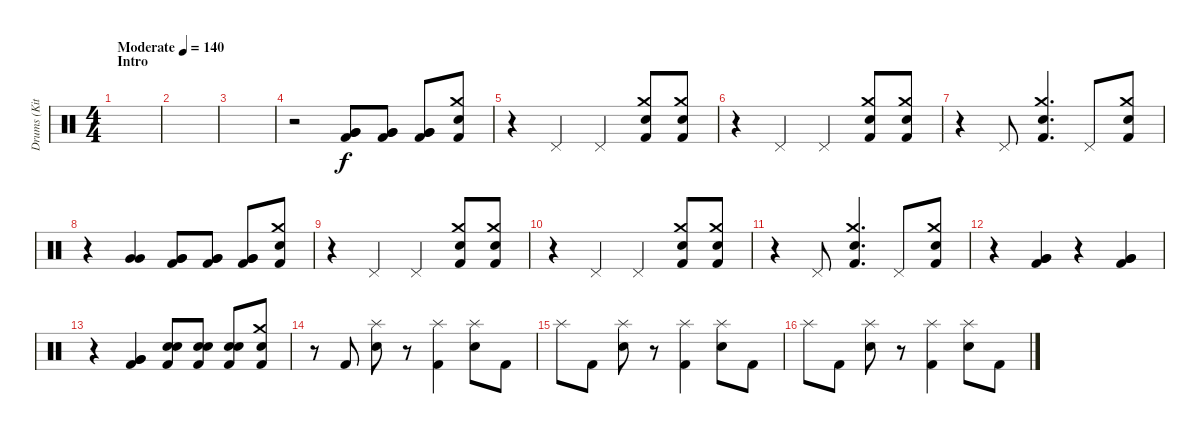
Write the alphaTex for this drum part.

\track ("Drums (Kita)" "Drums (Kit") {instrument percussion}
\staff {score}
\articulation defaults
\ts (4 4)
\section ("" "Intro")
\tempo (140 "Moderate")
\clef neutral
\ks c
|
|
|
r.2 ("Very Low Tom (hit)" "Very Low Tom (hit)" "Kick (hit) 2").8 ("Very Low Tom (hit)" "Very Low Tom (hit)" "Kick (hit) 2").8 ("Very Low Tom (hit)" "Very Low Tom (hit)" "Kick (hit) 2").8 ("Crash medium (hit)" "Snare (hit) 2" "Kick (hit) 2").8 |
r.4 "Pedal Hi-Hat (hit)".4 "Pedal Hi-Hat (hit)".4 ("Crash medium (hit)" "Snare (hit) 2" "Kick (hit) 2").8 ("Crash medium (hit)" "Snare (hit) 2" "Kick (hit) 2").8 |
r.4 "Pedal Hi-Hat (hit)".4 "Pedal Hi-Hat (hit)".4 ("Crash medium (hit)" "Snare (hit) 2" "Kick (hit) 2").8 ("Crash medium (hit)" "Snare (hit) 2" "Kick (hit) 2").8 |
r.4 "Pedal Hi-Hat (hit)".8 ("Crash medium (hit)" "Snare (hit) 2" "Kick (hit) 2").4{d} "Pedal Hi-Hat (hit)".8 ("Crash medium (hit)" "Snare (hit) 2" "Kick (hit) 2").8 |
r.4 ("Very Low Tom (hit)" "Very Low Tom (hit)").4 ("Very Low Tom (hit)" "Very Low Tom (hit)" "Kick (hit) 2").8 ("Very Low Tom (hit)" "Very Low Tom (hit)" "Kick (hit) 2").8 ("Very Low Tom (hit)" "Very Low Tom (hit)" "Kick (hit) 2").8 ("Crash medium (hit)" "Snare (hit) 2" "Kick (hit) 2").8 |
r.4 "Pedal Hi-Hat (hit)".4 "Pedal Hi-Hat (hit)".4 ("Crash medium (hit)" "Snare (hit) 2" "Kick (hit) 2").8 ("Crash medium (hit)" "Snare (hit) 2" "Kick (hit) 2").8 |
r.4 "Pedal Hi-Hat (hit)".4 "Pedal Hi-Hat (hit)".4 ("Crash medium (hit)" "Snare (hit) 2" "Kick (hit) 2").8 ("Crash medium (hit)" "Snare (hit) 2" "Kick (hit) 2").8 |
r.4 "Pedal Hi-Hat (hit)".8 ("Crash medium (hit)" "Snare (hit) 2" "Kick (hit) 2").4{d} "Pedal Hi-Hat (hit)".8 ("Crash medium (hit)" "Snare (hit) 2" "Kick (hit) 2").8 |
r.4 ("Very Low Tom (hit)" "Very Low Tom (hit)" "Kick (hit) 2").4 r.4 ("Very Low Tom (hit)" "Very Low Tom (hit)" "Kick (hit) 2").4 |
r.4 ("Very Low Tom (hit)" "Very Low Tom (hit)" "Kick (hit) 2").4 ("Snare (hit) 2" "Snare (hit) 2" "Kick (hit) 2").8 ("Snare (hit) 2" "Snare (hit) 2" "Kick (hit) 2").8 ("Snare (hit) 2" "Snare (hit) 2" "Kick (hit) 2").8 ("Crash medium (hit)" "Snare (hit) 2" "Kick (hit) 2").8 |
r.8 "Kick (hit) 2".8 ("Splash (hit)" "Snare (hit) 2").8 r.8 ("Splash (hit)" "Kick (hit) 2").4 ("Splash (hit)" "Snare (hit) 2").8 "Kick (hit) 2".8 |
"Splash (hit)".8 "Kick (hit) 2".8 ("Splash (hit)" "Snare (hit) 2").8 r.8 ("Splash (hit)" "Kick (hit) 2").4 ("Splash (hit)" "Snare (hit) 2").8 "Kick (hit) 2".8 |
"Splash (hit)".8 "Kick (hit) 2".8 ("Splash (hit)" "Snare (hit) 2").8 r.8 ("Splash (hit)" "Kick (hit) 2").4 ("Splash (hit)" "Snare (hit) 2").8 "Kick (hit) 2".8
